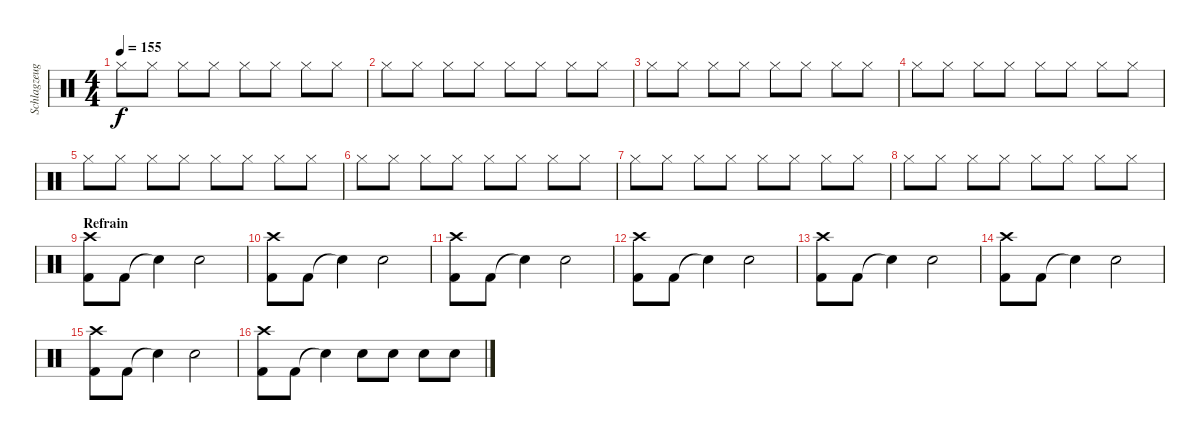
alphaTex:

\track ("Schlagzeug" "Schlagzeug") {instrument percussion}
\staff {score}
\articulation defaults
\ts (4 4)
\tempo 155
\clef neutral
\ks c "Hi-Hat (closed)".8{dy f} "Hi-Hat (closed)".8 "Hi-Hat (closed)".8 "Hi-Hat (closed)".8 "Hi-Hat (closed)".8 "Hi-Hat (closed)".8 "Hi-Hat (closed)".8 "Hi-Hat (closed)".8
|
"Hi-Hat (closed)".8 "Hi-Hat (closed)".8 "Hi-Hat (closed)".8 "Hi-Hat (closed)".8 "Hi-Hat (closed)".8 "Hi-Hat (closed)".8 "Hi-Hat (closed)".8 "Hi-Hat (closed)".8 |
"Hi-Hat (closed)".8 "Hi-Hat (closed)".8 "Hi-Hat (closed)".8 "Hi-Hat (closed)".8 "Hi-Hat (closed)".8 "Hi-Hat (closed)".8 "Hi-Hat (closed)".8 "Hi-Hat (closed)".8 |
"Hi-Hat (closed)".8 "Hi-Hat (closed)".8 "Hi-Hat (closed)".8 "Hi-Hat (closed)".8 "Hi-Hat (closed)".8 "Hi-Hat (closed)".8 "Hi-Hat (closed)".8 "Hi-Hat (closed)".8 |
"Hi-Hat (closed)".8 "Hi-Hat (closed)".8 "Hi-Hat (closed)".8 "Hi-Hat (closed)".8 "Hi-Hat (closed)".8 "Hi-Hat (closed)".8 "Hi-Hat (closed)".8 "Hi-Hat (closed)".8 |
"Hi-Hat (closed)".8 "Hi-Hat (closed)".8 "Hi-Hat (closed)".8 "Hi-Hat (closed)".8 "Hi-Hat (closed)".8 "Hi-Hat (closed)".8 "Hi-Hat (closed)".8 "Hi-Hat (closed)".8 |
"Hi-Hat (closed)".8 "Hi-Hat (closed)".8 "Hi-Hat (closed)".8 "Hi-Hat (closed)".8 "Hi-Hat (closed)".8 "Hi-Hat (closed)".8 "Hi-Hat (closed)".8 "Hi-Hat (closed)".8 |
"Hi-Hat (closed)".8 "Hi-Hat (closed)".8 "Hi-Hat (closed)".8 "Hi-Hat (closed)".8 "Hi-Hat (closed)".8 "Hi-Hat (closed)".8 "Hi-Hat (closed)".8 "Hi-Hat (closed)".8 |
\section ("" "Refrain")
("Crash high (hit)" "Kick (hit) 2").8 "Kick (hit) 2".8 "Snare (hit)"{t}.4 "Snare (hit) 2".2 |
("Crash high (hit)" "Kick (hit) 2").8 "Kick (hit) 2".8 "Snare (hit)"{t}.4 "Snare (hit) 2".2 |
("Crash high (hit)" "Kick (hit) 2").8 "Kick (hit) 2".8 "Snare (hit)"{t}.4 "Snare (hit) 2".2 |
("Crash high (hit)" "Kick (hit) 2").8 "Kick (hit) 2".8 "Snare (hit)"{t}.4 "Snare (hit) 2".2 |
("Crash high (hit)" "Kick (hit) 2").8 "Kick (hit) 2".8 "Snare (hit)"{t}.4 "Snare (hit) 2".2 |
("Crash high (hit)" "Kick (hit) 2").8 "Kick (hit) 2".8 "Snare (hit)"{t}.4 "Snare (hit) 2".2 |
("Crash high (hit)" "Kick (hit) 2").8 "Kick (hit) 2".8 "Snare (hit)"{t}.4 "Snare (hit) 2".2 |
("Crash high (hit)" "Kick (hit) 2").8 "Kick (hit) 2".8 "Snare (hit)"{t}.4 "Snare (hit) 2".8 "Snare (hit) 2".8 "Snare (hit) 2".8 "Snare (hit) 2".8
